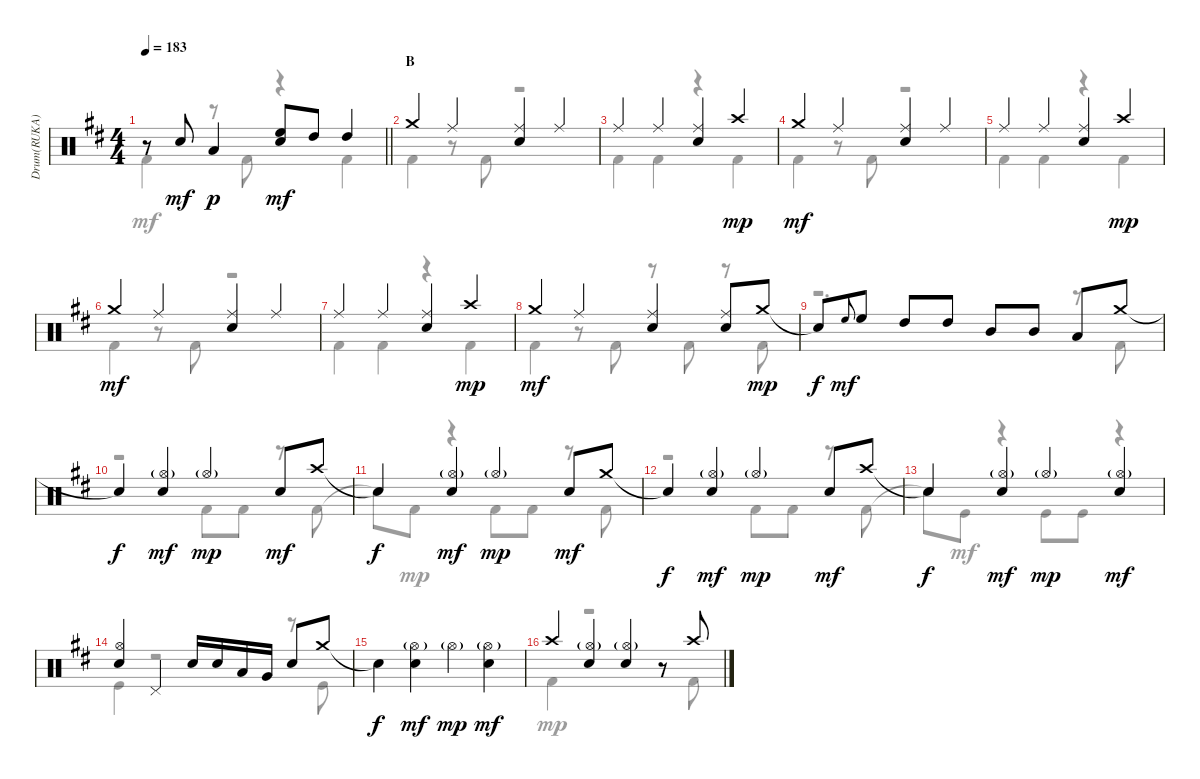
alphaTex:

\track ("Drum(RUKA)" "Drum(RUKA)") {instrument percussion}
\staff {score}
\articulation defaults
\voice
\ts (4 4)
\tempo 183
\clef neutral
\barLineRight lightlight
\ks d
r.8{dy ff} "Snare (hit) 2".8{dy mf} "Low Tom (hit)".4{dy p} ("Snare (hit) 2" "High Floor Tom (hit)").8{dy mf} "High Tom (hit)".8 "High Tom (hit)".4 |
\section ("" "B")
"Crash medium (hit)".4 "Ride (middle)".4 ("Ride (middle)" "Snare (hit) 2").4 "Ride (middle)".4 |
"Ride (middle)".4 "Ride (middle)".4 ("Ride (middle)" "Snare (hit) 2").4 "Crash high (hit)".4{dy mp} |
"Crash medium (hit)".4{dy mf} "Ride (middle)".4 ("Ride (middle)" "Snare (hit) 2").4 "Ride (middle)".4 |
"Ride (middle)".4 "Ride (middle)".4 ("Ride (middle)" "Snare (hit) 2").4 "Crash high (hit)".4{dy mp} |
"Crash medium (hit)".4{dy mf} "Ride (middle)".4 ("Ride (middle)" "Snare (hit) 2").4 "Ride (middle)".4 |
"Ride (middle)".4 "Ride (middle)".4 ("Ride (middle)" "Snare (hit) 2").4 "Crash high (hit)".4{dy mp} |
"Crash medium (hit)".4{dy mf} "Ride (middle)".4 ("Ride (middle)" "Snare (hit) 2").4 ("Ride (middle)" "Snare (hit) 2").8 "Crash medium (hit)".8{dy mp} |
"Snare (hit)"{t}.8{dy f} "High Floor Tom (hit)".8{gr onbeat dy mf} "High Floor Tom (hit)".8 "High Tom (hit)".8 "High Tom (hit)".8 "Mid Tom (hit)".8 "Mid Tom (hit)".8 "Low Tom (hit)".8 "Crash medium (hit)".8 |
"Snare (hit)"{t}.4{dy f} ("Hi-Hat (open)"{g} "Snare (hit) 2").4{dy mf} "Hi-Hat (open)"{g}.4{dy mp} "Snare (hit) 2".8{dy mf} "Crash high (hit)".8 |
"Snare (hit)"{t}.4{dy f} ("Hi-Hat (open)"{g} "Snare (hit) 2").4{dy mf} "Hi-Hat (open)"{g}.4{dy mp} "Snare (hit) 2".8{dy mf} "Crash medium (hit)".8 |
"Snare (hit)"{t}.4{dy f} ("Hi-Hat (open)"{g} "Snare (hit) 2").4{dy mf} "Hi-Hat (open)"{g}.4{dy mp} "Snare (hit) 2".8{dy mf} "Crash high (hit)".8 |
"Snare (hit)"{t}.4{dy f} ("Hi-Hat (open)"{g} "Snare (hit) 2").4{dy mf} "Hi-Hat (open)"{g}.4{dy mp} ("Hi-Hat (open)"{g} "Snare (hit) 2").4{dy mf} |
("Hi-Hat (open)" "Snare (hit) 2").4 "Pedal Hi-Hat (hit)".4 "Snare (hit) 2".16 "Snare (hit) 2".16 "Low Tom (hit)".16 "Very Low Tom (hit)".16 "Snare (hit) 2".8 "Crash medium (hit)".8 |
"Snare (hit)"{t}.4{dy f} ("Hi-Hat (open)"{g} "Snare (hit) 2").4{dy mf} "Hi-Hat (open)"{g}.4{dy mp} ("Hi-Hat (open)"{g} "Snare (hit) 2").4{dy mf} |
"Crash high (hit)".4 ("Hi-Hat (open)"{g} "Snare (hit) 2").4 ("Hi-Hat (open)"{g} "Snare (hit) 2").4 r.8 "Crash high (hit)".8
\voice
\clef neutral
\ottava regular
\simile none
\barLineRight lightlight
\ks d "Kick (hit) 2".4{dy mf}
r.8 "Kick (hit) 2".8 r.4 "Kick (hit) 2".4 |
"Kick (hit) 2".4 r.8 "Kick (hit) 2".8 r.2 |
"Kick (hit) 2".4 "Kick (hit) 2".4 r.4 "Kick (hit) 2".4 |
"Kick (hit) 2".4 r.8 "Kick (hit) 2".8 r.2 |
"Kick (hit) 2".4 "Kick (hit) 2".4 r.4 "Kick (hit) 2".4 |
"Kick (hit) 2".4 r.8 "Kick (hit) 2".8 r.2 |
"Kick (hit) 2".4 "Kick (hit) 2".4 r.4 "Kick (hit) 2".4 |
"Kick (hit) 2".4 r.8 "Kick (hit) 2".8 r.8 "Kick (hit) 2".8 r.8 "Kick (hit) 2".8 |
r.2{d} r.8 "Kick (hit) 2".8 |
r.2 "Kick (hit) 2".8{dy mp} "Kick (hit) 2".8 r.8 "Kick (hit) 2".8 |
"Snare (hit)"{t}.8{dy f} "Kick (hit) 2".8{dy mp} r.4 "Kick (hit) 2".8 "Kick (hit) 2".8 r.8 "Kick (hit) 2".8 |
r.2 "Kick (hit) 2".8 "Kick (hit) 2".8 r.8 "Kick (hit) 2".8 |
"Snare (hit)"{t}.8{dy f} "Kick (hit)".8{dy mf} r.4 "Kick (hit)".8 "Kick (hit)".8 r.4 |
"Kick (hit)".4 r.2 r.8 "Kick (hit)".8 |
|
"Kick (hit) 2".4{dy mp} r.2 r.8 "Kick (hit) 2".8
